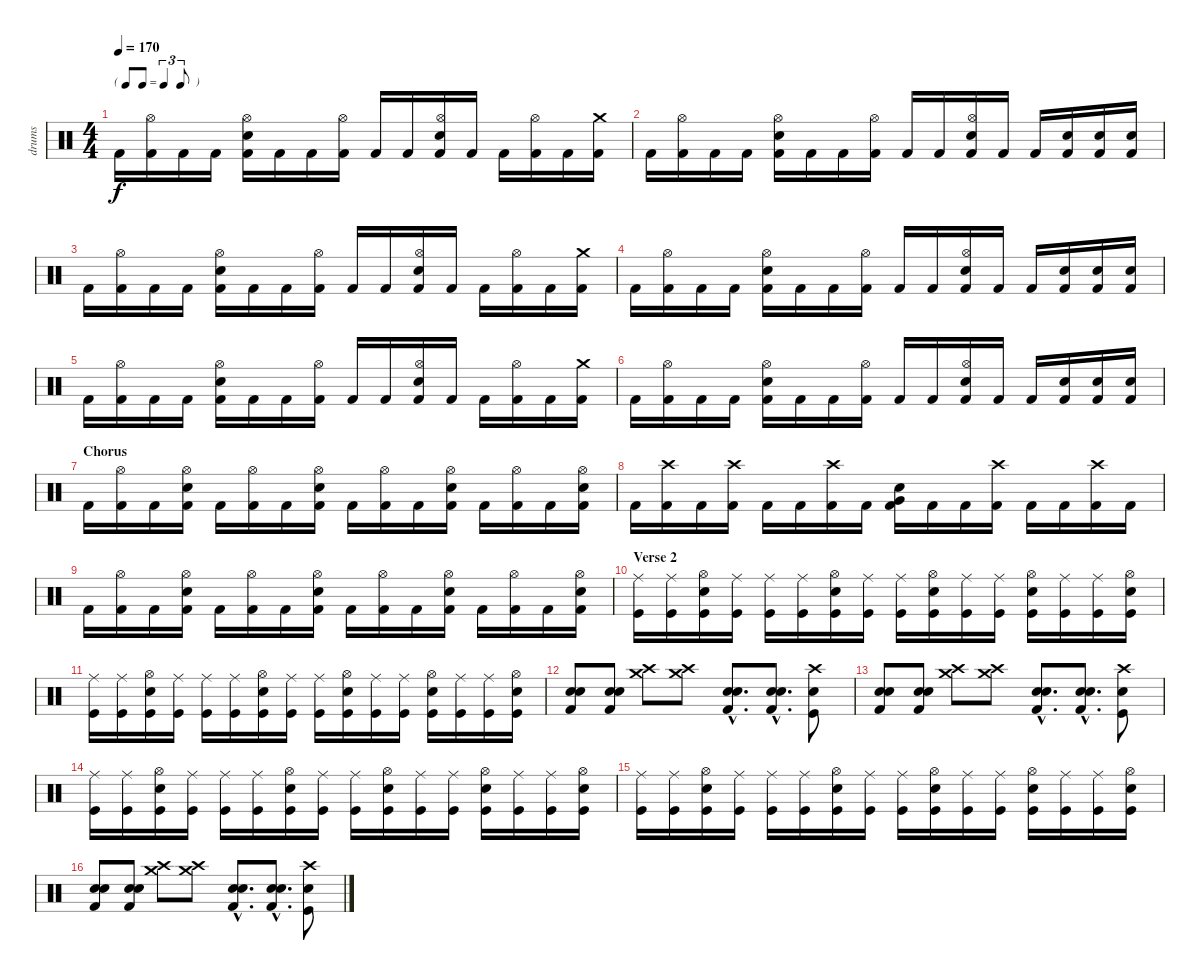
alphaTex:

\track ("drums" "drums") {instrument percussion}
\staff {score}
\articulation defaults
\ts (4 4)
\tf triplet8th
\tempo 170
\clef neutral
\ks c "Kick (hit) 2".16{dy f}
("Hi-Hat (open)" "Kick (hit) 2").16 "Kick (hit) 2".16 "Kick (hit) 2".16 ("Hi-Hat (open)" "Electric Snare (hit)" "Kick (hit) 2").16 "Kick (hit) 2".16 "Kick (hit) 2".16 ("Hi-Hat (open)" "Kick (hit) 2").16 "Kick (hit) 2".16 "Kick (hit) 2".16 ("Hi-Hat (open)" "Electric Snare (hit)" "Kick (hit) 2").16 "Kick (hit) 2".16 "Kick (hit) 2".16 ("Hi-Hat (open)" "Kick (hit) 2").16 "Kick (hit) 2".16 ("Crash medium (hit)" "Kick (hit) 2").16 |
"Kick (hit) 2".16 ("Hi-Hat (open)" "Kick (hit) 2").16 "Kick (hit) 2".16 "Kick (hit) 2".16 ("Hi-Hat (open)" "Electric Snare (hit)" "Kick (hit) 2").16 "Kick (hit) 2".16 "Kick (hit) 2".16 ("Hi-Hat (open)" "Kick (hit) 2").16 "Kick (hit) 2".16 "Kick (hit) 2".16 ("Hi-Hat (open)" "Electric Snare (hit)" "Kick (hit) 2").16 "Kick (hit) 2".16 "Kick (hit) 2".16 ("Electric Snare (hit)" "Kick (hit) 2").16 ("Electric Snare (hit)" "Kick (hit) 2").16 ("Electric Snare (hit)" "Kick (hit) 2").16 |
"Kick (hit) 2".16 ("Hi-Hat (open)" "Kick (hit) 2").16 "Kick (hit) 2".16 "Kick (hit) 2".16 ("Hi-Hat (open)" "Electric Snare (hit)" "Kick (hit) 2").16 "Kick (hit) 2".16 "Kick (hit) 2".16 ("Hi-Hat (open)" "Kick (hit) 2").16 "Kick (hit) 2".16 "Kick (hit) 2".16 ("Hi-Hat (open)" "Electric Snare (hit)" "Kick (hit) 2").16 "Kick (hit) 2".16 "Kick (hit) 2".16 ("Hi-Hat (open)" "Kick (hit) 2").16 "Kick (hit) 2".16 ("Crash medium (hit)" "Kick (hit) 2").16 |
"Kick (hit) 2".16 ("Hi-Hat (open)" "Kick (hit) 2").16 "Kick (hit) 2".16 "Kick (hit) 2".16 ("Hi-Hat (open)" "Electric Snare (hit)" "Kick (hit) 2").16 "Kick (hit) 2".16 "Kick (hit) 2".16 ("Hi-Hat (open)" "Kick (hit) 2").16 "Kick (hit) 2".16 "Kick (hit) 2".16 ("Hi-Hat (open)" "Electric Snare (hit)" "Kick (hit) 2").16 "Kick (hit) 2".16 "Kick (hit) 2".16 ("Electric Snare (hit)" "Kick (hit) 2").16 ("Electric Snare (hit)" "Kick (hit) 2").16 ("Electric Snare (hit)" "Kick (hit) 2").16 |
"Kick (hit) 2".16 ("Hi-Hat (open)" "Kick (hit) 2").16 "Kick (hit) 2".16 "Kick (hit) 2".16 ("Hi-Hat (open)" "Electric Snare (hit)" "Kick (hit) 2").16 "Kick (hit) 2".16 "Kick (hit) 2".16 ("Hi-Hat (open)" "Kick (hit) 2").16 "Kick (hit) 2".16 "Kick (hit) 2".16 ("Hi-Hat (open)" "Electric Snare (hit)" "Kick (hit) 2").16 "Kick (hit) 2".16 "Kick (hit) 2".16 ("Hi-Hat (open)" "Kick (hit) 2").16 "Kick (hit) 2".16 ("Crash medium (hit)" "Kick (hit) 2").16 |
"Kick (hit) 2".16 ("Hi-Hat (open)" "Kick (hit) 2").16 "Kick (hit) 2".16 "Kick (hit) 2".16 ("Hi-Hat (open)" "Electric Snare (hit)" "Kick (hit) 2").16 "Kick (hit) 2".16 "Kick (hit) 2".16 ("Hi-Hat (open)" "Kick (hit) 2").16 "Kick (hit) 2".16 "Kick (hit) 2".16 ("Hi-Hat (open)" "Electric Snare (hit)" "Kick (hit) 2").16 "Kick (hit) 2".16 "Kick (hit) 2".16 ("Electric Snare (hit)" "Kick (hit) 2").16 ("Electric Snare (hit)" "Kick (hit) 2").16 ("Electric Snare (hit)" "Kick (hit) 2").16 |
\section ("" "Chorus")
"Kick (hit) 2".16 ("Kick (hit) 2" "Hi-Hat (open)").16 "Kick (hit) 2".16 ("Kick (hit) 2" "Electric Snare (hit)" "Hi-Hat (open)").16 "Kick (hit) 2".16 ("Kick (hit) 2" "Hi-Hat (open)").16 "Kick (hit) 2".16 ("Kick (hit) 2" "Electric Snare (hit)" "Hi-Hat (open)").16 "Kick (hit) 2".16 ("Kick (hit) 2" "Hi-Hat (open)").16 "Kick (hit) 2".16 ("Kick (hit) 2" "Electric Snare (hit)" "Hi-Hat (open)").16 "Kick (hit) 2".16 ("Kick (hit) 2" "Hi-Hat (open)").16 "Kick (hit) 2".16 ("Kick (hit) 2" "Electric Snare (hit)" "Hi-Hat (open)").16 |
"Kick (hit) 2".16 ("Kick (hit) 2" "Crash high (hit)").16 "Kick (hit) 2".16 ("Kick (hit) 2" "Crash high (hit)").16 "Kick (hit) 2".16 "Kick (hit) 2".16 ("Kick (hit) 2" "Crash high (hit)").16 "Kick (hit) 2".16 ("Kick (hit) 2" "Electric Snare (hit)" "Very Low Tom (hit)").16 "Kick (hit) 2".16 "Kick (hit) 2".16 ("Kick (hit) 2" "Crash high (hit)").16 "Kick (hit) 2".16 "Kick (hit) 2".16 ("Kick (hit) 2" "Crash high (hit)").16 "Kick (hit) 2".16 |
"Kick (hit) 2".16 ("Kick (hit) 2" "Hi-Hat (open)").16 "Kick (hit) 2".16 ("Kick (hit) 2" "Electric Snare (hit)" "Hi-Hat (open)").16 "Kick (hit) 2".16 ("Kick (hit) 2" "Hi-Hat (open)").16 "Kick (hit) 2".16 ("Kick (hit) 2" "Electric Snare (hit)" "Hi-Hat (open)").16 "Kick (hit) 2".16 ("Kick (hit) 2" "Hi-Hat (open)").16 "Kick (hit) 2".16 ("Kick (hit) 2" "Electric Snare (hit)" "Hi-Hat (open)").16 "Kick (hit) 2".16 ("Kick (hit) 2" "Hi-Hat (open)").16 "Kick (hit) 2".16 ("Kick (hit) 2" "Electric Snare (hit)" "Hi-Hat (open)").16 |
\section ("" "Verse 2")
("Ride (middle)" "Kick (hit)").16 ("Ride (middle)" "Kick (hit)").16 ("Hi-Hat (open)" "Electric Snare (hit)" "Kick (hit)").16 ("Ride (middle)" "Kick (hit)").16 ("Ride (middle)" "Kick (hit)").16 ("Ride (middle)" "Kick (hit)").16 ("Hi-Hat (open)" "Electric Snare (hit)" "Kick (hit)").16 ("Ride (middle)" "Kick (hit)").16 ("Ride (middle)" "Kick (hit)").16 ("Hi-Hat (open)" "Electric Snare (hit)" "Kick (hit)").16 ("Ride (middle)" "Kick (hit)").16 ("Ride (middle)" "Kick (hit)").16 ("Hi-Hat (open)" "Electric Snare (hit)" "Kick (hit)").16 ("Ride (middle)" "Kick (hit)").16 ("Ride (middle)" "Kick (hit)").16 ("Hi-Hat (open)" "Electric Snare (hit)" "Kick (hit)").16 |
("Ride (middle)" "Kick (hit)").16 ("Ride (middle)" "Kick (hit)").16 ("Hi-Hat (open)" "Electric Snare (hit)" "Kick (hit)").16 ("Ride (middle)" "Kick (hit)").16 ("Ride (middle)" "Kick (hit)").16 ("Ride (middle)" "Kick (hit)").16 ("Hi-Hat (open)" "Electric Snare (hit)" "Kick (hit)").16 ("Ride (middle)" "Kick (hit)").16 ("Ride (middle)" "Kick (hit)").16 ("Hi-Hat (open)" "Electric Snare (hit)" "Kick (hit)").16 ("Ride (middle)" "Kick (hit)").16 ("Ride (middle)" "Kick (hit)").16 ("Hi-Hat (open)" "Electric Snare (hit)" "Kick (hit)").16 ("Ride (middle)" "Kick (hit)").16 ("Ride (middle)" "Kick (hit)").16 ("Hi-Hat (open)" "Electric Snare (hit)" "Kick (hit)").16 |
("Electric Snare (hit)" "Snare (hit) 2" "Kick (hit) 2").8 ("Electric Snare (hit)" "Snare (hit) 2" "Kick (hit) 2").8 ("Crash medium (hit)" "Crash high (hit)").8 ("Crash medium (hit)" "Crash high (hit)").8 ("Electric Snare (hit)"{hac} "Snare (hit) 2"{hac} "Kick (hit) 2"{hac}).8{d} ("Electric Snare (hit)"{hac} "Snare (hit) 2"{hac} "Kick (hit) 2"{hac}).8{d} ("Crash high (hit)" "Snare (hit) 2" "Kick (hit)").8 |
("Electric Snare (hit)" "Snare (hit) 2" "Kick (hit) 2").8 ("Electric Snare (hit)" "Snare (hit) 2" "Kick (hit) 2").8 ("Crash medium (hit)" "Crash high (hit)").8 ("Crash medium (hit)" "Crash high (hit)").8 ("Electric Snare (hit)"{hac} "Snare (hit) 2"{hac} "Kick (hit) 2"{hac}).8{d} ("Electric Snare (hit)"{hac} "Snare (hit) 2"{hac} "Kick (hit) 2"{hac}).8{d} ("Crash high (hit)" "Snare (hit) 2" "Kick (hit)").8 |
("Ride (middle)" "Kick (hit)").16 ("Ride (middle)" "Kick (hit)").16 ("Hi-Hat (open)" "Electric Snare (hit)" "Kick (hit)").16 ("Ride (middle)" "Kick (hit)").16 ("Ride (middle)" "Kick (hit)").16 ("Ride (middle)" "Kick (hit)").16 ("Hi-Hat (open)" "Electric Snare (hit)" "Kick (hit)").16 ("Ride (middle)" "Kick (hit)").16 ("Ride (middle)" "Kick (hit)").16 ("Hi-Hat (open)" "Electric Snare (hit)" "Kick (hit)").16 ("Ride (middle)" "Kick (hit)").16 ("Ride (middle)" "Kick (hit)").16 ("Hi-Hat (open)" "Electric Snare (hit)" "Kick (hit)").16 ("Ride (middle)" "Kick (hit)").16 ("Ride (middle)" "Kick (hit)").16 ("Hi-Hat (open)" "Electric Snare (hit)" "Kick (hit)").16 |
("Ride (middle)" "Kick (hit)").16 ("Ride (middle)" "Kick (hit)").16 ("Hi-Hat (open)" "Electric Snare (hit)" "Kick (hit)").16 ("Ride (middle)" "Kick (hit)").16 ("Ride (middle)" "Kick (hit)").16 ("Ride (middle)" "Kick (hit)").16 ("Hi-Hat (open)" "Electric Snare (hit)" "Kick (hit)").16 ("Ride (middle)" "Kick (hit)").16 ("Ride (middle)" "Kick (hit)").16 ("Hi-Hat (open)" "Electric Snare (hit)" "Kick (hit)").16 ("Ride (middle)" "Kick (hit)").16 ("Ride (middle)" "Kick (hit)").16 ("Hi-Hat (open)" "Electric Snare (hit)" "Kick (hit)").16 ("Ride (middle)" "Kick (hit)").16 ("Ride (middle)" "Kick (hit)").16 ("Hi-Hat (open)" "Electric Snare (hit)" "Kick (hit)").16 |
("Electric Snare (hit)" "Snare (hit) 2" "Kick (hit) 2").8 ("Electric Snare (hit)" "Snare (hit) 2" "Kick (hit) 2").8 ("Crash medium (hit)" "Crash high (hit)").8 ("Crash medium (hit)" "Crash high (hit)").8 ("Electric Snare (hit)"{hac} "Snare (hit) 2"{hac} "Kick (hit) 2"{hac}).8{d} ("Electric Snare (hit)"{hac} "Snare (hit) 2"{hac} "Kick (hit) 2"{hac}).8{d} ("Crash high (hit)" "Snare (hit) 2" "Kick (hit)").8
